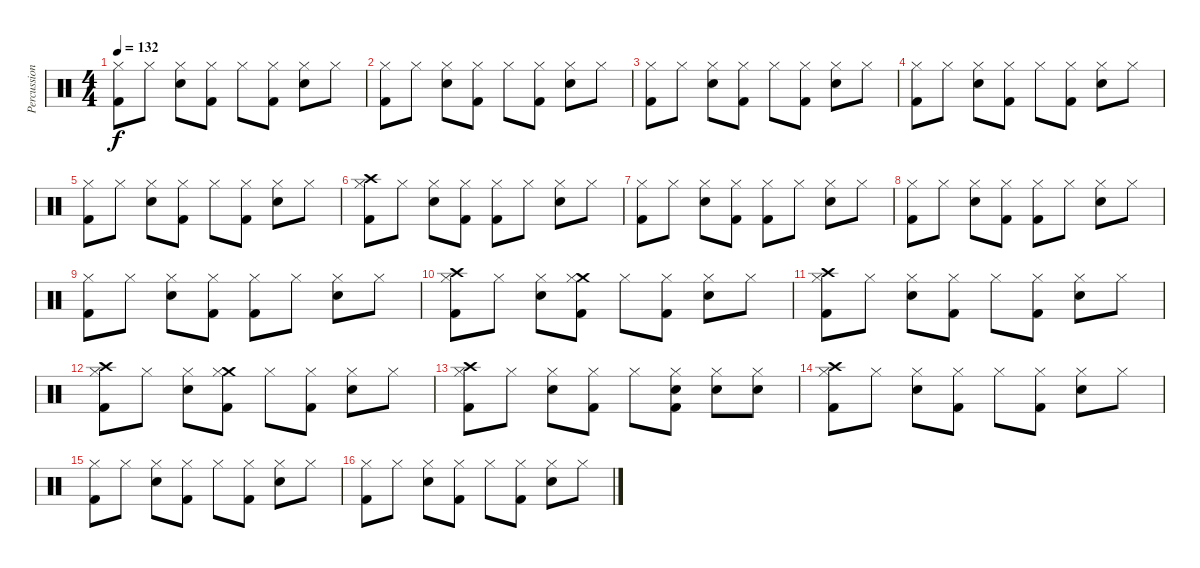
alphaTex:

\track ("Percussion" "Percussion") {instrument percussion}
\staff {score}
\articulation defaults
\ts (4 4)
\tempo 132
\clef neutral
\ks c
("Hi-Hat (closed)" "Kick (hit) 2").8{dy f} "Hi-Hat (closed)".8 ("Hi-Hat (closed)" "Snare (hit) 2").8 ("Hi-Hat (closed)" "Kick (hit) 2").8 "Hi-Hat (closed)".8 ("Hi-Hat (closed)" "Kick (hit) 2").8 ("Hi-Hat (closed)" "Snare (hit) 2").8 "Hi-Hat (closed)".8 |
("Hi-Hat (closed)" "Kick (hit) 2").8 "Hi-Hat (closed)".8 ("Hi-Hat (closed)" "Snare (hit) 2").8 ("Hi-Hat (closed)" "Kick (hit) 2").8 "Hi-Hat (closed)".8 ("Hi-Hat (closed)" "Kick (hit) 2").8 ("Hi-Hat (closed)" "Snare (hit) 2").8 "Hi-Hat (closed)".8 |
("Hi-Hat (closed)" "Kick (hit) 2").8 "Hi-Hat (closed)".8 ("Hi-Hat (closed)" "Snare (hit) 2").8 ("Hi-Hat (closed)" "Kick (hit) 2").8 "Hi-Hat (closed)".8 ("Hi-Hat (closed)" "Kick (hit) 2").8 ("Hi-Hat (closed)" "Snare (hit) 2").8 "Hi-Hat (closed)".8 |
("Hi-Hat (closed)" "Kick (hit) 2").8 "Hi-Hat (closed)".8 ("Hi-Hat (closed)" "Snare (hit) 2").8 ("Hi-Hat (closed)" "Kick (hit) 2").8 "Hi-Hat (closed)".8 ("Hi-Hat (closed)" "Kick (hit) 2").8 ("Hi-Hat (closed)" "Snare (hit) 2").8 "Hi-Hat (closed)".8 |
("Hi-Hat (closed)" "Kick (hit) 2").8 "Hi-Hat (closed)".8 ("Hi-Hat (closed)" "Snare (hit) 2").8 ("Hi-Hat (closed)" "Kick (hit) 2").8 "Hi-Hat (closed)".8 ("Hi-Hat (closed)" "Kick (hit) 2").8 ("Hi-Hat (closed)" "Snare (hit) 2").8 "Hi-Hat (closed)".8 |
("Crash high (hit)" "Hi-Hat (closed)" "Kick (hit) 2").8 "Hi-Hat (closed)".8 ("Hi-Hat (closed)" "Snare (hit) 2").8 ("Hi-Hat (closed)" "Kick (hit) 2").8 ("Hi-Hat (closed)" "Kick (hit) 2").8 "Hi-Hat (closed)".8 ("Hi-Hat (closed)" "Snare (hit) 2").8 "Hi-Hat (closed)".8 |
("Hi-Hat (closed)" "Kick (hit) 2").8 "Hi-Hat (closed)".8 ("Hi-Hat (closed)" "Snare (hit) 2").8 ("Hi-Hat (closed)" "Kick (hit) 2").8 ("Hi-Hat (closed)" "Kick (hit) 2").8 "Hi-Hat (closed)".8 ("Hi-Hat (closed)" "Snare (hit) 2").8 "Hi-Hat (closed)".8 |
("Hi-Hat (closed)" "Kick (hit) 2").8 "Hi-Hat (closed)".8 ("Hi-Hat (closed)" "Snare (hit) 2").8 ("Hi-Hat (closed)" "Kick (hit) 2").8 ("Hi-Hat (closed)" "Kick (hit) 2").8 "Hi-Hat (closed)".8 ("Hi-Hat (closed)" "Snare (hit) 2").8 "Hi-Hat (closed)".8 |
("Hi-Hat (closed)" "Kick (hit) 2").8 "Hi-Hat (closed)".8 ("Hi-Hat (closed)" "Snare (hit) 2").8 ("Hi-Hat (closed)" "Kick (hit) 2").8 ("Hi-Hat (closed)" "Kick (hit) 2").8 "Hi-Hat (closed)".8 ("Hi-Hat (closed)" "Snare (hit) 2").8 "Hi-Hat (closed)".8 |
("Crash high (hit)" "Hi-Hat (closed)" "Kick (hit) 2").8 "Hi-Hat (closed)".8 ("Hi-Hat (closed)" "Snare (hit) 2").8 ("Crash medium (hit)" "Hi-Hat (closed)" "Kick (hit) 2").8 "Hi-Hat (closed)".8 ("Hi-Hat (closed)" "Kick (hit) 2").8 ("Hi-Hat (closed)" "Snare (hit) 2").8 "Hi-Hat (closed)".8 |
("Crash high (hit)" "Hi-Hat (closed)" "Kick (hit) 2").8 "Hi-Hat (closed)".8 ("Hi-Hat (closed)" "Snare (hit) 2").8 ("Hi-Hat (closed)" "Kick (hit) 2").8 "Hi-Hat (closed)".8 ("Hi-Hat (closed)" "Kick (hit) 2").8 ("Hi-Hat (closed)" "Snare (hit) 2").8 "Hi-Hat (closed)".8 |
("Crash high (hit)" "Hi-Hat (closed)" "Kick (hit) 2").8 "Hi-Hat (closed)".8 ("Hi-Hat (closed)" "Snare (hit) 2").8 ("Crash medium (hit)" "Hi-Hat (closed)" "Kick (hit) 2").8 "Hi-Hat (closed)".8 ("Hi-Hat (closed)" "Kick (hit) 2").8 ("Hi-Hat (closed)" "Snare (hit) 2").8 "Hi-Hat (closed)".8 |
("Crash high (hit)" "Hi-Hat (closed)" "Kick (hit) 2").8 "Hi-Hat (closed)".8 ("Hi-Hat (closed)" "Snare (hit) 2").8 ("Hi-Hat (closed)" "Kick (hit) 2").8 "Hi-Hat (closed)".8 ("Hi-Hat (closed)" "Snare (hit) 2" "Kick (hit) 2").8 ("Hi-Hat (closed)" "Snare (hit) 2").8 ("Hi-Hat (closed)" "Snare (hit) 2").8 |
("Crash high (hit)" "Hi-Hat (closed)" "Kick (hit) 2").8 "Hi-Hat (closed)".8 ("Hi-Hat (closed)" "Snare (hit) 2").8 ("Hi-Hat (closed)" "Kick (hit) 2").8 "Hi-Hat (closed)".8 ("Hi-Hat (closed)" "Kick (hit) 2").8 ("Hi-Hat (closed)" "Snare (hit) 2").8 "Hi-Hat (closed)".8 |
("Hi-Hat (closed)" "Kick (hit) 2").8 "Hi-Hat (closed)".8 ("Hi-Hat (closed)" "Snare (hit) 2").8 ("Hi-Hat (closed)" "Kick (hit) 2").8 "Hi-Hat (closed)".8 ("Hi-Hat (closed)" "Kick (hit) 2").8 ("Hi-Hat (closed)" "Snare (hit) 2").8 "Hi-Hat (closed)".8 |
("Hi-Hat (closed)" "Kick (hit) 2").8 "Hi-Hat (closed)".8 ("Hi-Hat (closed)" "Snare (hit) 2").8 ("Hi-Hat (closed)" "Kick (hit) 2").8 "Hi-Hat (closed)".8 ("Hi-Hat (closed)" "Kick (hit) 2").8 ("Hi-Hat (closed)" "Snare (hit) 2").8 "Hi-Hat (closed)".8
